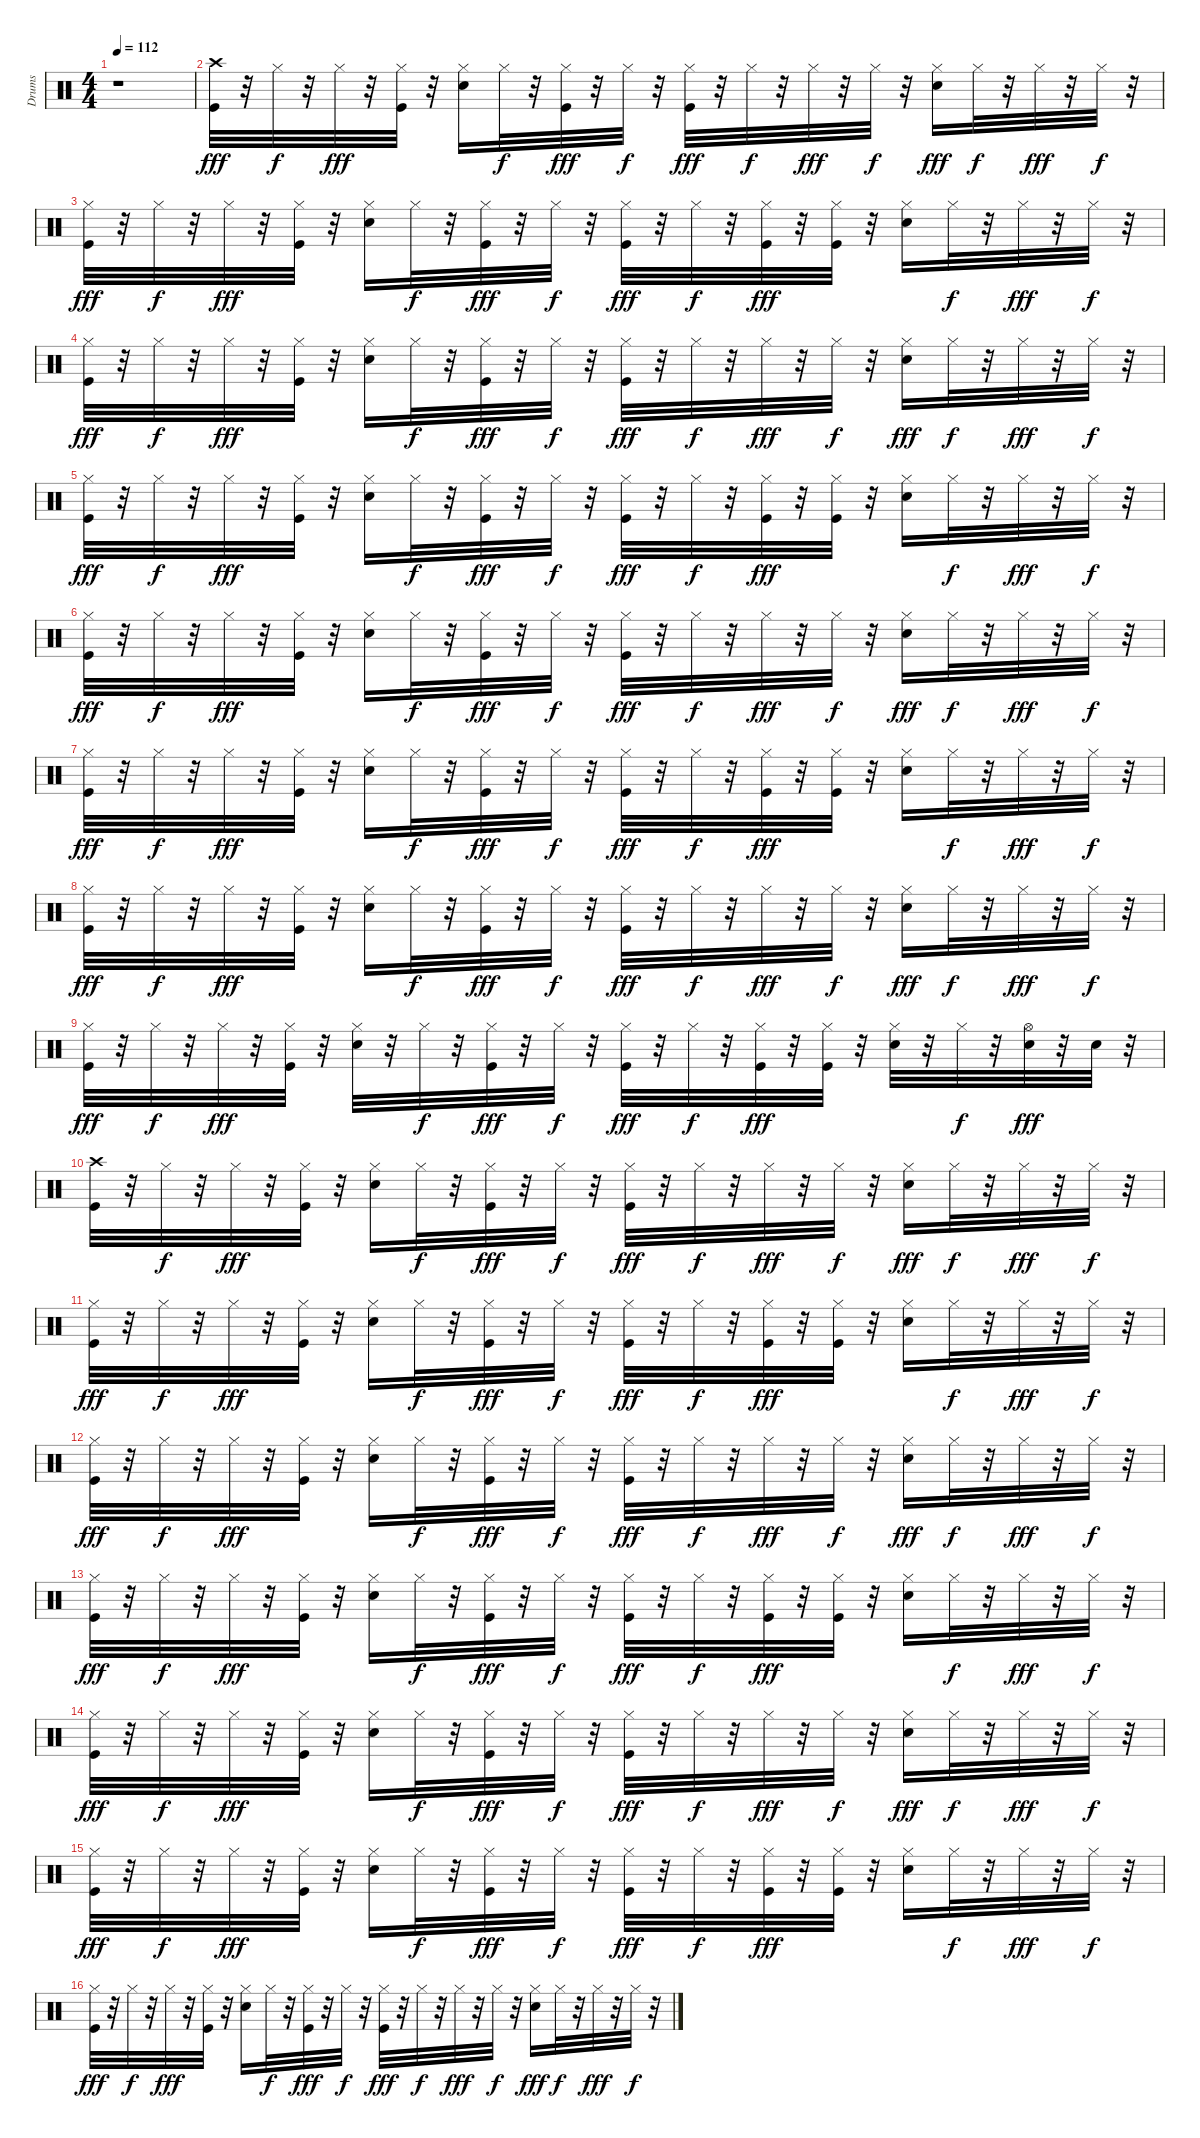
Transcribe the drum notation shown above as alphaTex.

\track ("Drums" "Drums") {instrument percussion}
\staff {score}
\articulation defaults
\ts (4 4)
\tempo 112
\clef neutral
\ks c
r.1{dy fff} |
("Kick (hit)" "Crash high (hit)").32 r.32 "Hi-Hat (closed)".32{dy f} r.32 "Hi-Hat (closed)".32{dy fff} r.32 ("Kick (hit)" "Hi-Hat (closed)").32 r.32 ("Snare (hit) 2" "Hi-Hat (closed)").16 "Hi-Hat (closed)".32{dy f} r.32 ("Kick (hit)" "Hi-Hat (closed)").32{dy fff} r.32 "Hi-Hat (closed)".32{dy f} r.32 ("Kick (hit)" "Hi-Hat (closed)").32{dy fff} r.32 "Hi-Hat (closed)".32{dy f} r.32 "Hi-Hat (closed)".32{dy fff} r.32 "Hi-Hat (closed)".32{dy f} r.32 ("Snare (hit) 2" "Hi-Hat (closed)").16{dy fff} "Hi-Hat (closed)".32{dy f} r.32 "Hi-Hat (closed)".32{dy fff} r.32 "Hi-Hat (closed)".32{dy f} r.32 |
("Kick (hit)" "Hi-Hat (closed)").32{dy fff} r.32 "Hi-Hat (closed)".32{dy f} r.32 "Hi-Hat (closed)".32{dy fff} r.32 ("Kick (hit)" "Hi-Hat (closed)").32 r.32 ("Snare (hit) 2" "Hi-Hat (closed)").16 "Hi-Hat (closed)".32{dy f} r.32 ("Kick (hit)" "Hi-Hat (closed)").32{dy fff} r.32 "Hi-Hat (closed)".32{dy f} r.32 ("Kick (hit)" "Hi-Hat (closed)").32{dy fff} r.32 "Hi-Hat (closed)".32{dy f} r.32 ("Kick (hit)" "Hi-Hat (closed)").32{dy fff} r.32 ("Kick (hit)" "Hi-Hat (closed)").32 r.32 ("Snare (hit) 2" "Hi-Hat (closed)").16 "Hi-Hat (closed)".32{dy f} r.32 "Hi-Hat (closed)".32{dy fff} r.32 "Hi-Hat (closed)".32{dy f} r.32 |
("Kick (hit)" "Hi-Hat (closed)").32{dy fff} r.32 "Hi-Hat (closed)".32{dy f} r.32 "Hi-Hat (closed)".32{dy fff} r.32 ("Kick (hit)" "Hi-Hat (closed)").32 r.32 ("Snare (hit) 2" "Hi-Hat (closed)").16 "Hi-Hat (closed)".32{dy f} r.32 ("Kick (hit)" "Hi-Hat (closed)").32{dy fff} r.32 "Hi-Hat (closed)".32{dy f} r.32 ("Kick (hit)" "Hi-Hat (closed)").32{dy fff} r.32 "Hi-Hat (closed)".32{dy f} r.32 "Hi-Hat (closed)".32{dy fff} r.32 "Hi-Hat (closed)".32{dy f} r.32 ("Snare (hit) 2" "Hi-Hat (closed)").16{dy fff} "Hi-Hat (closed)".32{dy f} r.32 "Hi-Hat (closed)".32{dy fff} r.32 "Hi-Hat (closed)".32{dy f} r.32 |
("Kick (hit)" "Hi-Hat (closed)").32{dy fff} r.32 "Hi-Hat (closed)".32{dy f} r.32 "Hi-Hat (closed)".32{dy fff} r.32 ("Kick (hit)" "Hi-Hat (closed)").32 r.32 ("Snare (hit) 2" "Hi-Hat (closed)").16 "Hi-Hat (closed)".32{dy f} r.32 ("Kick (hit)" "Hi-Hat (closed)").32{dy fff} r.32 "Hi-Hat (closed)".32{dy f} r.32 ("Kick (hit)" "Hi-Hat (closed)").32{dy fff} r.32 "Hi-Hat (closed)".32{dy f} r.32 ("Kick (hit)" "Hi-Hat (closed)").32{dy fff} r.32 ("Kick (hit)" "Hi-Hat (closed)").32 r.32 ("Snare (hit) 2" "Hi-Hat (closed)").16 "Hi-Hat (closed)".32{dy f} r.32 "Hi-Hat (closed)".32{dy fff} r.32 "Hi-Hat (closed)".32{dy f} r.32 |
("Kick (hit)" "Hi-Hat (closed)").32{dy fff} r.32 "Hi-Hat (closed)".32{dy f} r.32 "Hi-Hat (closed)".32{dy fff} r.32 ("Kick (hit)" "Hi-Hat (closed)").32 r.32 ("Snare (hit) 2" "Hi-Hat (closed)").16 "Hi-Hat (closed)".32{dy f} r.32 ("Kick (hit)" "Hi-Hat (closed)").32{dy fff} r.32 "Hi-Hat (closed)".32{dy f} r.32 ("Kick (hit)" "Hi-Hat (closed)").32{dy fff} r.32 "Hi-Hat (closed)".32{dy f} r.32 "Hi-Hat (closed)".32{dy fff} r.32 "Hi-Hat (closed)".32{dy f} r.32 ("Snare (hit) 2" "Hi-Hat (closed)").16{dy fff} "Hi-Hat (closed)".32{dy f} r.32 "Hi-Hat (closed)".32{dy fff} r.32 "Hi-Hat (closed)".32{dy f} r.32 |
("Kick (hit)" "Hi-Hat (closed)").32{dy fff} r.32 "Hi-Hat (closed)".32{dy f} r.32 "Hi-Hat (closed)".32{dy fff} r.32 ("Kick (hit)" "Hi-Hat (closed)").32 r.32 ("Snare (hit) 2" "Hi-Hat (closed)").16 "Hi-Hat (closed)".32{dy f} r.32 ("Kick (hit)" "Hi-Hat (closed)").32{dy fff} r.32 "Hi-Hat (closed)".32{dy f} r.32 ("Kick (hit)" "Hi-Hat (closed)").32{dy fff} r.32 "Hi-Hat (closed)".32{dy f} r.32 ("Kick (hit)" "Hi-Hat (closed)").32{dy fff} r.32 ("Kick (hit)" "Hi-Hat (closed)").32 r.32 ("Snare (hit) 2" "Hi-Hat (closed)").16 "Hi-Hat (closed)".32{dy f} r.32 "Hi-Hat (closed)".32{dy fff} r.32 "Hi-Hat (closed)".32{dy f} r.32 |
("Kick (hit)" "Hi-Hat (closed)").32{dy fff} r.32 "Hi-Hat (closed)".32{dy f} r.32 "Hi-Hat (closed)".32{dy fff} r.32 ("Kick (hit)" "Hi-Hat (closed)").32 r.32 ("Snare (hit) 2" "Hi-Hat (closed)").16 "Hi-Hat (closed)".32{dy f} r.32 ("Kick (hit)" "Hi-Hat (closed)").32{dy fff} r.32 "Hi-Hat (closed)".32{dy f} r.32 ("Kick (hit)" "Hi-Hat (closed)").32{dy fff} r.32 "Hi-Hat (closed)".32{dy f} r.32 "Hi-Hat (closed)".32{dy fff} r.32 "Hi-Hat (closed)".32{dy f} r.32 ("Snare (hit) 2" "Hi-Hat (closed)").16{dy fff} "Hi-Hat (closed)".32{dy f} r.32 "Hi-Hat (closed)".32{dy fff} r.32 "Hi-Hat (closed)".32{dy f} r.32 |
("Kick (hit)" "Hi-Hat (closed)").32{dy fff} r.32 "Hi-Hat (closed)".32{dy f} r.32 "Hi-Hat (closed)".32{dy fff} r.32 ("Kick (hit)" "Hi-Hat (closed)").32 r.32 ("Snare (hit) 2" "Hi-Hat (closed)").32 r.32 "Hi-Hat (closed)".32{dy f} r.32 ("Kick (hit)" "Hi-Hat (closed)").32{dy fff} r.32 "Hi-Hat (closed)".32{dy f} r.32 ("Kick (hit)" "Hi-Hat (closed)").32{dy fff} r.32 "Hi-Hat (closed)".32{dy f} r.32 ("Kick (hit)" "Hi-Hat (closed)").32{dy fff} r.32 ("Kick (hit)" "Hi-Hat (closed)").32 r.32 ("Snare (hit) 2" "Hi-Hat (closed)").32 r.32 "Hi-Hat (closed)".32{dy f} r.32 ("Snare (hit) 2" "Hi-Hat (open)").32{dy fff} r.32 "Snare (hit) 2".32 r.32 |
("Kick (hit)" "Crash high (hit)").32 r.32 "Hi-Hat (closed)".32{dy f} r.32 "Hi-Hat (closed)".32{dy fff} r.32 ("Kick (hit)" "Hi-Hat (closed)").32 r.32 ("Snare (hit) 2" "Hi-Hat (closed)").16 "Hi-Hat (closed)".32{dy f} r.32 ("Kick (hit)" "Hi-Hat (closed)").32{dy fff} r.32 "Hi-Hat (closed)".32{dy f} r.32 ("Kick (hit)" "Hi-Hat (closed)").32{dy fff} r.32 "Hi-Hat (closed)".32{dy f} r.32 "Hi-Hat (closed)".32{dy fff} r.32 "Hi-Hat (closed)".32{dy f} r.32 ("Snare (hit) 2" "Hi-Hat (closed)").16{dy fff} "Hi-Hat (closed)".32{dy f} r.32 "Hi-Hat (closed)".32{dy fff} r.32 "Hi-Hat (closed)".32{dy f} r.32 |
("Kick (hit)" "Hi-Hat (closed)").32{dy fff} r.32 "Hi-Hat (closed)".32{dy f} r.32 "Hi-Hat (closed)".32{dy fff} r.32 ("Kick (hit)" "Hi-Hat (closed)").32 r.32 ("Snare (hit) 2" "Hi-Hat (closed)").16 "Hi-Hat (closed)".32{dy f} r.32 ("Kick (hit)" "Hi-Hat (closed)").32{dy fff} r.32 "Hi-Hat (closed)".32{dy f} r.32 ("Kick (hit)" "Hi-Hat (closed)").32{dy fff} r.32 "Hi-Hat (closed)".32{dy f} r.32 ("Kick (hit)" "Hi-Hat (closed)").32{dy fff} r.32 ("Kick (hit)" "Hi-Hat (closed)").32 r.32 ("Snare (hit) 2" "Hi-Hat (closed)").16 "Hi-Hat (closed)".32{dy f} r.32 "Hi-Hat (closed)".32{dy fff} r.32 "Hi-Hat (closed)".32{dy f} r.32 |
("Kick (hit)" "Hi-Hat (closed)").32{dy fff} r.32 "Hi-Hat (closed)".32{dy f} r.32 "Hi-Hat (closed)".32{dy fff} r.32 ("Kick (hit)" "Hi-Hat (closed)").32 r.32 ("Snare (hit) 2" "Hi-Hat (closed)").16 "Hi-Hat (closed)".32{dy f} r.32 ("Kick (hit)" "Hi-Hat (closed)").32{dy fff} r.32 "Hi-Hat (closed)".32{dy f} r.32 ("Kick (hit)" "Hi-Hat (closed)").32{dy fff} r.32 "Hi-Hat (closed)".32{dy f} r.32 "Hi-Hat (closed)".32{dy fff} r.32 "Hi-Hat (closed)".32{dy f} r.32 ("Snare (hit) 2" "Hi-Hat (closed)").16{dy fff} "Hi-Hat (closed)".32{dy f} r.32 "Hi-Hat (closed)".32{dy fff} r.32 "Hi-Hat (closed)".32{dy f} r.32 |
("Kick (hit)" "Hi-Hat (closed)").32{dy fff} r.32 "Hi-Hat (closed)".32{dy f} r.32 "Hi-Hat (closed)".32{dy fff} r.32 ("Kick (hit)" "Hi-Hat (closed)").32 r.32 ("Snare (hit) 2" "Hi-Hat (closed)").16 "Hi-Hat (closed)".32{dy f} r.32 ("Kick (hit)" "Hi-Hat (closed)").32{dy fff} r.32 "Hi-Hat (closed)".32{dy f} r.32 ("Kick (hit)" "Hi-Hat (closed)").32{dy fff} r.32 "Hi-Hat (closed)".32{dy f} r.32 ("Kick (hit)" "Hi-Hat (closed)").32{dy fff} r.32 ("Kick (hit)" "Hi-Hat (closed)").32 r.32 ("Snare (hit) 2" "Hi-Hat (closed)").16 "Hi-Hat (closed)".32{dy f} r.32 "Hi-Hat (closed)".32{dy fff} r.32 "Hi-Hat (closed)".32{dy f} r.32 |
("Kick (hit)" "Hi-Hat (closed)").32{dy fff} r.32 "Hi-Hat (closed)".32{dy f} r.32 "Hi-Hat (closed)".32{dy fff} r.32 ("Kick (hit)" "Hi-Hat (closed)").32 r.32 ("Snare (hit) 2" "Hi-Hat (closed)").16 "Hi-Hat (closed)".32{dy f} r.32 ("Kick (hit)" "Hi-Hat (closed)").32{dy fff} r.32 "Hi-Hat (closed)".32{dy f} r.32 ("Kick (hit)" "Hi-Hat (closed)").32{dy fff} r.32 "Hi-Hat (closed)".32{dy f} r.32 "Hi-Hat (closed)".32{dy fff} r.32 "Hi-Hat (closed)".32{dy f} r.32 ("Snare (hit) 2" "Hi-Hat (closed)").16{dy fff} "Hi-Hat (closed)".32{dy f} r.32 "Hi-Hat (closed)".32{dy fff} r.32 "Hi-Hat (closed)".32{dy f} r.32 |
("Kick (hit)" "Hi-Hat (closed)").32{dy fff} r.32 "Hi-Hat (closed)".32{dy f} r.32 "Hi-Hat (closed)".32{dy fff} r.32 ("Kick (hit)" "Hi-Hat (closed)").32 r.32 ("Snare (hit) 2" "Hi-Hat (closed)").16 "Hi-Hat (closed)".32{dy f} r.32 ("Kick (hit)" "Hi-Hat (closed)").32{dy fff} r.32 "Hi-Hat (closed)".32{dy f} r.32 ("Kick (hit)" "Hi-Hat (closed)").32{dy fff} r.32 "Hi-Hat (closed)".32{dy f} r.32 ("Kick (hit)" "Hi-Hat (closed)").32{dy fff} r.32 ("Kick (hit)" "Hi-Hat (closed)").32 r.32 ("Snare (hit) 2" "Hi-Hat (closed)").16 "Hi-Hat (closed)".32{dy f} r.32 "Hi-Hat (closed)".32{dy fff} r.32 "Hi-Hat (closed)".32{dy f} r.32 |
("Kick (hit)" "Hi-Hat (closed)").32{dy fff} r.32 "Hi-Hat (closed)".32{dy f} r.32 "Hi-Hat (closed)".32{dy fff} r.32 ("Kick (hit)" "Hi-Hat (closed)").32 r.32 ("Snare (hit) 2" "Hi-Hat (closed)").16 "Hi-Hat (closed)".32{dy f} r.32 ("Kick (hit)" "Hi-Hat (closed)").32{dy fff} r.32 "Hi-Hat (closed)".32{dy f} r.32 ("Kick (hit)" "Hi-Hat (closed)").32{dy fff} r.32 "Hi-Hat (closed)".32{dy f} r.32 "Hi-Hat (closed)".32{dy fff} r.32 "Hi-Hat (closed)".32{dy f} r.32 ("Snare (hit) 2" "Hi-Hat (closed)").16{dy fff} "Hi-Hat (closed)".32{dy f} r.32 "Hi-Hat (closed)".32{dy fff} r.32 "Hi-Hat (closed)".32{dy f} r.32
